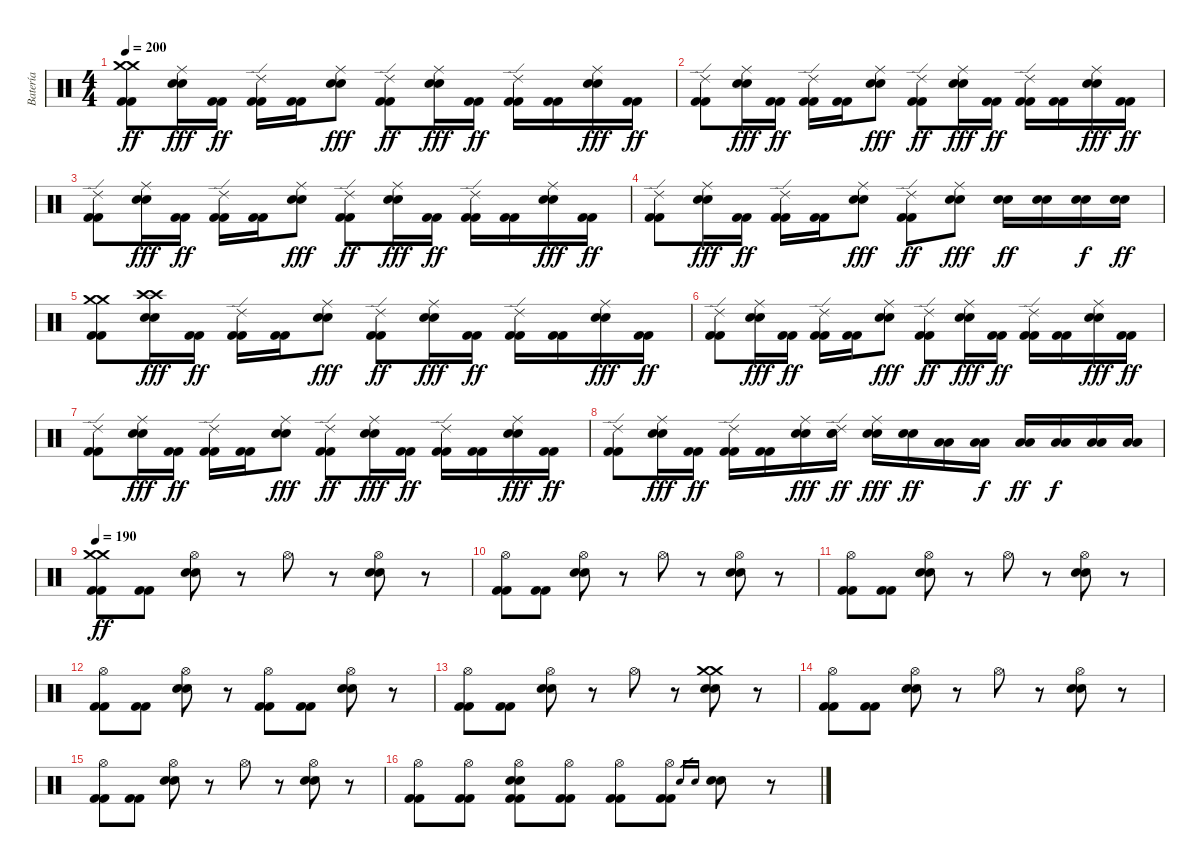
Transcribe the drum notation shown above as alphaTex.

\track ("Batería" "Batería") {instrument percussion}
\staff {score}
\articulation defaults
\ts (4 4)
\tempo 200
\clef neutral
\ks c
("Crash medium (hit)" "Crash medium (hit)" "Kick (hit) 2" "Kick (hit) 2").8{dy ff} ("Ride (middle)" "Electric Snare (hit)" "Electric Snare (hit)").16{dy fff} ("Kick (hit) 2" "Kick (hit) 2").16{dy ff} ("Ride (edge) 2" "Kick (hit) 2" "Kick (hit) 2").16 ("Kick (hit) 2" "Kick (hit) 2").16 ("Ride (middle)" "Electric Snare (hit)" "Electric Snare (hit)").8{dy fff} ("Ride (edge) 2" "Kick (hit) 2" "Kick (hit) 2").8{dy ff} ("Ride (middle)" "Electric Snare (hit)" "Electric Snare (hit)").16{dy fff} ("Kick (hit) 2" "Kick (hit) 2").16{dy ff} ("Ride (edge) 2" "Kick (hit) 2" "Kick (hit) 2").16 ("Kick (hit) 2" "Kick (hit) 2").16 ("Ride (middle)" "Electric Snare (hit)" "Electric Snare (hit)").16{dy fff} ("Kick (hit) 2" "Kick (hit) 2").16{dy ff} |
("Ride (edge) 2" "Kick (hit) 2" "Kick (hit) 2").8 ("Ride (middle)" "Electric Snare (hit)" "Electric Snare (hit)").16{dy fff} ("Kick (hit) 2" "Kick (hit) 2").16{dy ff} ("Ride (edge) 2" "Kick (hit) 2" "Kick (hit) 2").16 ("Kick (hit) 2" "Kick (hit) 2").16 ("Ride (middle)" "Electric Snare (hit)" "Electric Snare (hit)").8{dy fff} ("Ride (edge) 2" "Kick (hit) 2" "Kick (hit) 2").8{dy ff} ("Ride (middle)" "Electric Snare (hit)" "Electric Snare (hit)").16{dy fff} ("Kick (hit) 2" "Kick (hit) 2").16{dy ff} ("Ride (edge) 2" "Kick (hit) 2" "Kick (hit) 2").16 ("Kick (hit) 2" "Kick (hit) 2").16 ("Ride (middle)" "Electric Snare (hit)" "Electric Snare (hit)").16{dy fff} ("Kick (hit) 2" "Kick (hit) 2").16{dy ff} |
("Ride (edge) 2" "Kick (hit) 2" "Kick (hit) 2").8 ("Ride (middle)" "Electric Snare (hit)" "Electric Snare (hit)").16{dy fff} ("Kick (hit) 2" "Kick (hit) 2").16{dy ff} ("Ride (edge) 2" "Kick (hit) 2" "Kick (hit) 2").16 ("Kick (hit) 2" "Kick (hit) 2").16 ("Ride (middle)" "Electric Snare (hit)" "Electric Snare (hit)").8{dy fff} ("Ride (edge) 2" "Kick (hit) 2" "Kick (hit) 2").8{dy ff} ("Ride (middle)" "Electric Snare (hit)" "Electric Snare (hit)").16{dy fff} ("Kick (hit) 2" "Kick (hit) 2").16{dy ff} ("Ride (edge) 2" "Kick (hit) 2" "Kick (hit) 2").16 ("Kick (hit) 2" "Kick (hit) 2").16 ("Ride (middle)" "Electric Snare (hit)" "Electric Snare (hit)").16{dy fff} ("Kick (hit) 2" "Kick (hit) 2").16{dy ff} |
("Ride (edge) 2" "Kick (hit) 2" "Kick (hit) 2").8 ("Ride (middle)" "Electric Snare (hit)" "Electric Snare (hit)").16{dy fff} ("Kick (hit) 2" "Kick (hit) 2").16{dy ff} ("Ride (edge) 2" "Kick (hit) 2" "Kick (hit) 2").16 ("Kick (hit) 2" "Kick (hit) 2").16 ("Ride (middle)" "Electric Snare (hit)" "Electric Snare (hit)").8{dy fff} ("Ride (edge) 2" "Kick (hit) 2" "Kick (hit) 2").8{dy ff} ("Ride (middle)" "Electric Snare (hit)" "Electric Snare (hit)").8{dy fff} ("Electric Snare (hit)" "Electric Snare (hit)").16{dy ff} ("Electric Snare (hit)" "Electric Snare (hit)").16 ("Electric Snare (hit)" "Electric Snare (hit)").16{dy f} ("Electric Snare (hit)" "Electric Snare (hit)").16{dy ff} |
("Crash medium (hit)" "Crash medium (hit)" "Kick (hit) 2" "Kick (hit) 2").8 ("Crash high (hit)" "Crash high (hit)" "Electric Snare (hit)" "Electric Snare (hit)").16{dy fff} ("Kick (hit) 2" "Kick (hit) 2").16{dy ff} ("Ride (edge) 2" "Kick (hit) 2" "Kick (hit) 2").16 ("Kick (hit) 2" "Kick (hit) 2").16 ("Ride (middle)" "Electric Snare (hit)" "Electric Snare (hit)").8{dy fff} ("Ride (edge) 2" "Kick (hit) 2" "Kick (hit) 2").8{dy ff} ("Ride (middle)" "Electric Snare (hit)" "Electric Snare (hit)").16{dy fff} ("Kick (hit) 2" "Kick (hit) 2").16{dy ff} ("Ride (edge) 2" "Kick (hit) 2" "Kick (hit) 2").16 ("Kick (hit) 2" "Kick (hit) 2").16 ("Ride (middle)" "Electric Snare (hit)" "Electric Snare (hit)").16{dy fff} ("Kick (hit) 2" "Kick (hit) 2").16{dy ff} |
("Ride (edge) 2" "Kick (hit) 2" "Kick (hit) 2").8 ("Ride (middle)" "Electric Snare (hit)" "Electric Snare (hit)").16{dy fff} ("Kick (hit) 2" "Kick (hit) 2").16{dy ff} ("Ride (edge) 2" "Kick (hit) 2" "Kick (hit) 2").16 ("Kick (hit) 2" "Kick (hit) 2").16 ("Ride (middle)" "Electric Snare (hit)" "Electric Snare (hit)").8{dy fff} ("Ride (edge) 2" "Kick (hit) 2" "Kick (hit) 2").8{dy ff} ("Ride (middle)" "Electric Snare (hit)" "Electric Snare (hit)").16{dy fff} ("Kick (hit) 2" "Kick (hit) 2").16{dy ff} ("Ride (edge) 2" "Kick (hit) 2" "Kick (hit) 2").16 ("Kick (hit) 2" "Kick (hit) 2").16 ("Ride (middle)" "Electric Snare (hit)" "Electric Snare (hit)").16{dy fff} ("Kick (hit) 2" "Kick (hit) 2").16{dy ff} |
("Ride (edge) 2" "Kick (hit) 2" "Kick (hit) 2").8 ("Ride (middle)" "Electric Snare (hit)" "Electric Snare (hit)").16{dy fff} ("Kick (hit) 2" "Kick (hit) 2").16{dy ff} ("Ride (edge) 2" "Kick (hit) 2" "Kick (hit) 2").16 ("Kick (hit) 2" "Kick (hit) 2").16 ("Ride (middle)" "Electric Snare (hit)" "Electric Snare (hit)").8{dy fff} ("Ride (edge) 2" "Kick (hit) 2" "Kick (hit) 2").8{dy ff} ("Ride (middle)" "Electric Snare (hit)" "Electric Snare (hit)").16{dy fff} ("Kick (hit) 2" "Kick (hit) 2").16{dy ff} ("Ride (edge) 2" "Kick (hit) 2" "Kick (hit) 2").16 ("Kick (hit) 2" "Kick (hit) 2").16 ("Ride (middle)" "Electric Snare (hit)" "Electric Snare (hit)").16{dy fff} ("Kick (hit) 2" "Kick (hit) 2").16{dy ff} |
("Ride (edge) 2" "Kick (hit) 2" "Kick (hit) 2").8 ("Ride (middle)" "Electric Snare (hit)" "Electric Snare (hit)").16{dy fff} ("Kick (hit) 2" "Kick (hit) 2").16{dy ff} ("Ride (edge) 2" "Kick (hit) 2" "Kick (hit) 2").16 ("Kick (hit) 2" "Kick (hit) 2").16 ("Ride (middle)" "Electric Snare (hit)" "Electric Snare (hit)").16{dy fff} ("Ride (edge) 2" "Electric Snare (hit)" "Electric Snare (hit)").16{dy ff} ("Ride (middle)" "Electric Snare (hit)" "Electric Snare (hit)").16{dy fff} ("Electric Snare (hit)" "Electric Snare (hit)").16{dy ff} ("Low Tom (hit)" "Low Tom (hit)").16 ("Low Tom (hit)" "Low Tom (hit)").16{dy f} ("Low Tom (hit)" "Low Tom (hit)").16{dy ff} ("Low Tom (hit)" "Low Tom (hit)").16{dy f} ("Low Tom (hit)" "Low Tom (hit)").16 ("Low Tom (hit)" "Low Tom (hit)").16 |
\tempo 190
("Crash medium (hit)" "Crash medium (hit)" "Kick (hit) 2" "Kick (hit) 2").8{dy ff} ("Kick (hit) 2" "Kick (hit) 2").8 ("Hi-Hat (open)" "Electric Snare (hit)" "Electric Snare (hit)").8 r.8 "Hi-Hat (open)".8 r.8 ("Hi-Hat (open)" "Electric Snare (hit)" "Electric Snare (hit)").8 r.8 |
("Hi-Hat (open)" "Kick (hit) 2" "Kick (hit) 2").8 ("Kick (hit) 2" "Kick (hit) 2").8 ("Hi-Hat (open)" "Electric Snare (hit)" "Electric Snare (hit)").8 r.8 "Hi-Hat (open)".8 r.8 ("Hi-Hat (open)" "Electric Snare (hit)" "Electric Snare (hit)").8 r.8 |
("Hi-Hat (open)" "Kick (hit) 2" "Kick (hit) 2").8 ("Kick (hit) 2" "Kick (hit) 2").8 ("Hi-Hat (open)" "Electric Snare (hit)" "Electric Snare (hit)").8 r.8 "Hi-Hat (open)".8 r.8 ("Hi-Hat (open)" "Electric Snare (hit)" "Electric Snare (hit)").8 r.8 |
("Hi-Hat (open)" "Kick (hit) 2" "Kick (hit) 2").8 ("Kick (hit) 2" "Kick (hit) 2").8 ("Hi-Hat (open)" "Electric Snare (hit)" "Electric Snare (hit)").8 r.8 ("Hi-Hat (open)" "Kick (hit) 2" "Kick (hit) 2").8 ("Kick (hit) 2" "Kick (hit) 2").8 ("Hi-Hat (open)" "Electric Snare (hit)" "Electric Snare (hit)").8 r.8 |
("Hi-Hat (open)" "Kick (hit) 2" "Kick (hit) 2").8 ("Kick (hit) 2" "Kick (hit) 2").8 ("Hi-Hat (open)" "Electric Snare (hit)" "Electric Snare (hit)").8 r.8 "Hi-Hat (open)".8 r.8 ("Crash medium (hit)" "Crash medium (hit)" "Electric Snare (hit)" "Electric Snare (hit)").8 r.8 |
("Hi-Hat (open)" "Kick (hit) 2" "Kick (hit) 2").8 ("Kick (hit) 2" "Kick (hit) 2").8 ("Hi-Hat (open)" "Electric Snare (hit)" "Electric Snare (hit)").8 r.8 "Hi-Hat (open)".8 r.8 ("Hi-Hat (open)" "Electric Snare (hit)" "Electric Snare (hit)").8 r.8 |
("Hi-Hat (open)" "Kick (hit) 2" "Kick (hit) 2").8 ("Kick (hit) 2" "Kick (hit) 2").8 ("Hi-Hat (open)" "Electric Snare (hit)" "Electric Snare (hit)").8 r.8 "Hi-Hat (open)".8 r.8 ("Hi-Hat (open)" "Electric Snare (hit)" "Electric Snare (hit)").8 r.8 |
("Hi-Hat (open)" "Kick (hit) 2" "Kick (hit) 2").8 ("Hi-Hat (open)" "Kick (hit) 2" "Kick (hit) 2").8 ("Hi-Hat (open)" "Electric Snare (hit)" "Electric Snare (hit)" "Kick (hit) 2" "Kick (hit) 2").8 ("Hi-Hat (open)" "Kick (hit) 2" "Kick (hit) 2").8 ("Hi-Hat (open)" "Kick (hit) 2" "Kick (hit) 2").8 ("Hi-Hat (open)" "Kick (hit) 2" "Kick (hit) 2").8 "Electric Snare (hit)".16{gr} "Electric Snare (hit)".16{gr} ("Electric Snare (hit)" "Electric Snare (hit)").8 r.8
